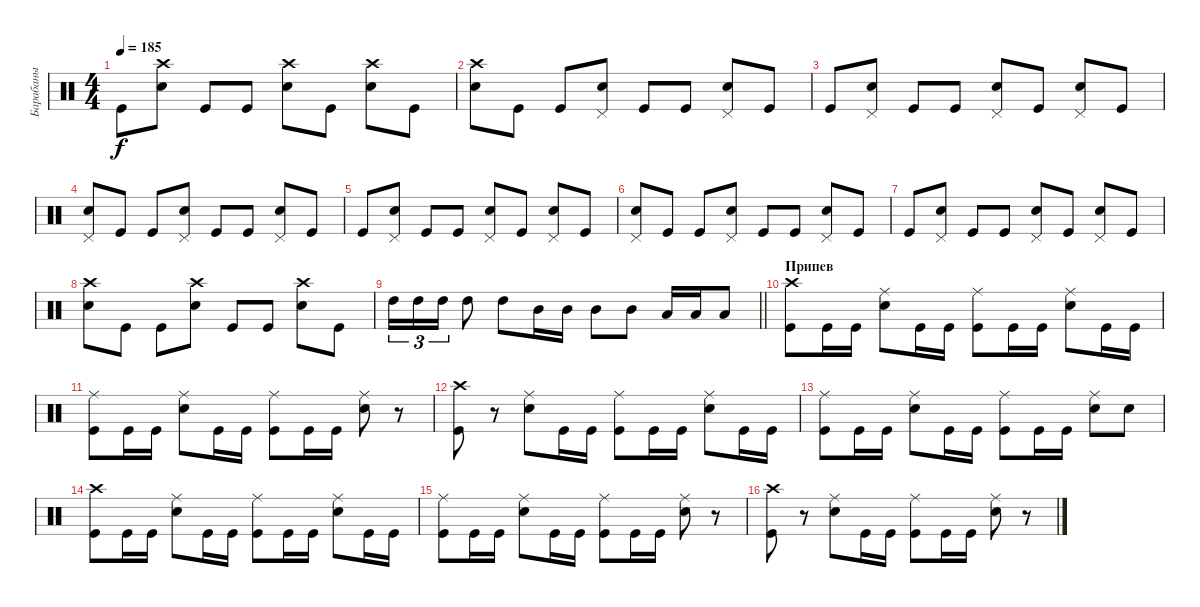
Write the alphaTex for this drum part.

\track ("Барабаны" "Барабаны") {instrument percussion}
\staff {score}
\articulation defaults
\ts (4 4)
\tempo 185
\clef neutral
\ks c "Kick (hit)".8{dy f}
("Snare (hit) 2" "Crash high (hit)").8 "Kick (hit)".8 "Kick (hit)".8 ("Snare (hit) 2" "Crash high (hit)").8 "Kick (hit)".8 ("Snare (hit) 2" "Crash high (hit)").8 "Kick (hit)".8 |
("Snare (hit) 2" "Crash high (hit)").8 "Kick (hit)".8 "Kick (hit)".8 ("Snare (hit) 2" "Pedal Hi-Hat (hit)").8 "Kick (hit)".8 "Kick (hit)".8 ("Snare (hit) 2" "Pedal Hi-Hat (hit)").8 "Kick (hit)".8 |
"Kick (hit)".8 ("Snare (hit) 2" "Pedal Hi-Hat (hit)").8 "Kick (hit)".8 "Kick (hit)".8 ("Snare (hit) 2" "Pedal Hi-Hat (hit)").8 "Kick (hit)".8 ("Snare (hit) 2" "Pedal Hi-Hat (hit)").8 "Kick (hit)".8 |
("Snare (hit) 2" "Pedal Hi-Hat (hit)").8 "Kick (hit)".8 "Kick (hit)".8 ("Snare (hit) 2" "Pedal Hi-Hat (hit)").8 "Kick (hit)".8 "Kick (hit)".8 ("Snare (hit) 2" "Pedal Hi-Hat (hit)").8 "Kick (hit)".8 |
"Kick (hit)".8 ("Snare (hit) 2" "Pedal Hi-Hat (hit)").8 "Kick (hit)".8 "Kick (hit)".8 ("Snare (hit) 2" "Pedal Hi-Hat (hit)").8 "Kick (hit)".8 ("Snare (hit) 2" "Pedal Hi-Hat (hit)").8 "Kick (hit)".8 |
("Snare (hit) 2" "Pedal Hi-Hat (hit)").8 "Kick (hit)".8 "Kick (hit)".8 ("Snare (hit) 2" "Pedal Hi-Hat (hit)").8 "Kick (hit)".8 "Kick (hit)".8 ("Snare (hit) 2" "Pedal Hi-Hat (hit)").8 "Kick (hit)".8 |
"Kick (hit)".8 ("Snare (hit) 2" "Pedal Hi-Hat (hit)").8 "Kick (hit)".8 "Kick (hit)".8 ("Snare (hit) 2" "Pedal Hi-Hat (hit)").8 "Kick (hit)".8 ("Snare (hit) 2" "Pedal Hi-Hat (hit)").8 "Kick (hit)".8 |
("Snare (hit) 2" "Crash high (hit)").8 "Kick (hit)".8 "Kick (hit)".8 ("Snare (hit) 2" "Crash high (hit)").8 "Kick (hit)".8 "Kick (hit)".8 ("Snare (hit) 2" "Crash high (hit)").8 "Kick (hit)".8 |
\barLineRight lightlight "High Tom (hit)".16{tu (3 2)} "High Tom (hit)".16{tu (3 2)} "High Tom (hit)".16{tu (3 2)} "High Tom (hit)".8 "High Tom (hit)".8 "Mid Tom (hit)".16 "Mid Tom (hit)".16 "Mid Tom (hit)".8 "Mid Tom (hit)".8 "Low Tom (hit)".16 "Low Tom (hit)".16 "Low Tom (hit)".8
|
\section ("" "Припев")
("Kick (hit)" "Crash high (hit)").8 "Kick (hit)".16 "Kick (hit)".16 ("Snare (hit) 2" "Ride (middle)").8 "Kick (hit)".16 "Kick (hit)".16 ("Kick (hit)" "Ride (middle)").8 "Kick (hit)".16 "Kick (hit)".16 ("Snare (hit) 2" "Ride (middle)").8 "Kick (hit)".16 "Kick (hit)".16 |
("Kick (hit)" "Ride (middle)").8 "Kick (hit)".16 "Kick (hit)".16 ("Snare (hit) 2" "Ride (middle)").8 "Kick (hit)".16 "Kick (hit)".16 ("Kick (hit)" "Ride (middle)").8 "Kick (hit)".16 "Kick (hit)".16 ("Snare (hit) 2" "Ride (middle)").8 r.8 |
("Kick (hit)" "Crash high (hit)").8 r.8 ("Snare (hit) 2" "Ride (middle)").8 "Kick (hit)".16 "Kick (hit)".16 ("Kick (hit)" "Ride (middle)").8 "Kick (hit)".16 "Kick (hit)".16 ("Snare (hit) 2" "Ride (middle)").8 "Kick (hit)".16 "Kick (hit)".16 |
("Kick (hit)" "Ride (middle)").8 "Kick (hit)".16 "Kick (hit)".16 ("Snare (hit) 2" "Ride (middle)").8 "Kick (hit)".16 "Kick (hit)".16 ("Kick (hit)" "Ride (middle)").8 "Kick (hit)".16 "Kick (hit)".16 ("Snare (hit) 2" "Ride (middle)").8 "Snare (hit) 2".8 |
("Kick (hit)" "Crash high (hit)").8 "Kick (hit)".16 "Kick (hit)".16 ("Snare (hit) 2" "Ride (middle)").8 "Kick (hit)".16 "Kick (hit)".16 ("Kick (hit)" "Ride (middle)").8 "Kick (hit)".16 "Kick (hit)".16 ("Snare (hit) 2" "Ride (middle)").8 "Kick (hit)".16 "Kick (hit)".16 |
("Kick (hit)" "Ride (middle)").8 "Kick (hit)".16 "Kick (hit)".16 ("Snare (hit) 2" "Ride (middle)").8 "Kick (hit)".16 "Kick (hit)".16 ("Kick (hit)" "Ride (middle)").8 "Kick (hit)".16 "Kick (hit)".16 ("Snare (hit) 2" "Ride (middle)").8 r.8 |
("Kick (hit)" "Crash high (hit)").8 r.8 ("Snare (hit) 2" "Ride (middle)").8 "Kick (hit)".16 "Kick (hit)".16 ("Kick (hit)" "Ride (middle)").8 "Kick (hit)".16 "Kick (hit)".16 ("Snare (hit) 2" "Ride (middle)").8 r.8
